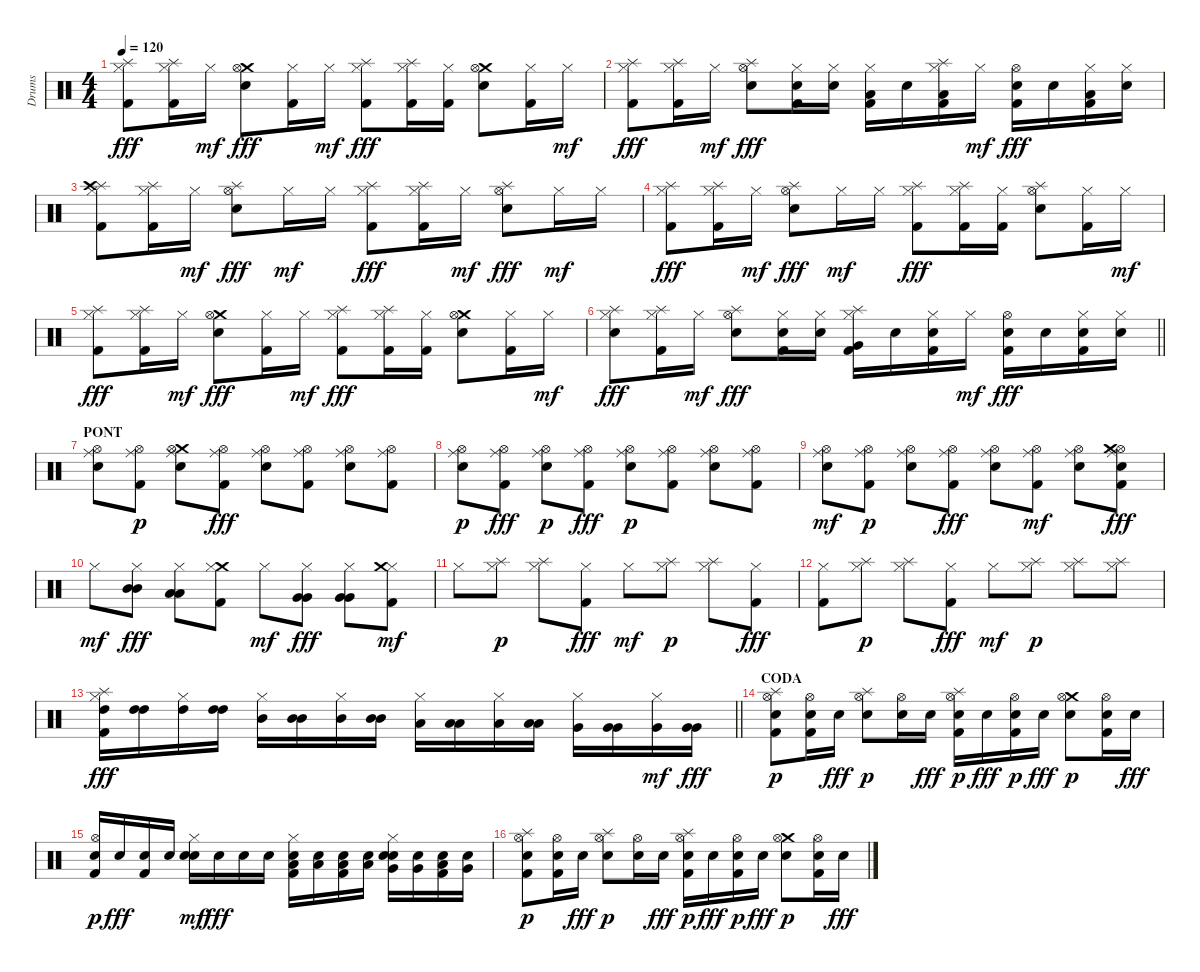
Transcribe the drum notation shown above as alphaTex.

\track ("Drums" "Drums") {instrument percussion}
\staff {score}
\articulation defaults
\ts (4 4)
\tempo 120
\clef neutral
\ks c
("Splash (hit)" "Hi-Hat (closed)" "Kick (hit) 2").8{dy fff} ("Splash (hit)" "Hi-Hat (closed)" "Kick (hit) 2").16 "Hi-Hat (closed)".16{dy mf} ("Crash medium (hit)" "Hi-Hat (open)" "Snare (hit) 2").8{dy fff} ("Hi-Hat (closed)" "Kick (hit) 2").16 "Hi-Hat (closed)".16{dy mf} ("Splash (hit)" "Hi-Hat (closed)" "Kick (hit) 2").8{dy fff} ("Splash (hit)" "Hi-Hat (closed)" "Kick (hit) 2").16 ("Hi-Hat (closed)" "Kick (hit) 2").16 ("Crash medium (hit)" "Hi-Hat (open)" "Snare (hit) 2").8 ("Hi-Hat (closed)" "Kick (hit) 2").16 "Hi-Hat (closed)".16{dy mf} |
("Splash (hit)" "Hi-Hat (closed)" "Kick (hit) 2").8{dy fff} ("Splash (hit)" "Hi-Hat (closed)" "Kick (hit) 2").16 "Hi-Hat (closed)".16{dy mf} ("Splash (hit)" "Hi-Hat (open)" "Snare (hit) 2").8{dy fff} ("Hi-Hat (closed)" "Snare (hit) 2" "Kick (hit) 2").16 ("Hi-Hat (closed)" "Snare (hit) 2").16 ("Hi-Hat (closed)" "Low Tom (hit)" "Kick (hit) 2").16 "Snare (hit) 2".16 ("Splash (hit)" "Hi-Hat (closed)" "Low Tom (hit)" "Kick (hit) 2").16 "Hi-Hat (closed)".16{dy mf} ("Hi-Hat (open)" "Snare (hit) 2" "Kick (hit) 2").16{dy fff} "Snare (hit) 2".16 ("Hi-Hat (closed)" "Low Tom (hit)" "Kick (hit) 2").16 ("Hi-Hat (closed)" "Snare (hit) 2").16 |
("Splash (hit)" "Hi-Hat (closed)" "Crash high (hit)" "Kick (hit) 2").8 ("Splash (hit)" "Hi-Hat (closed)" "Kick (hit) 2").16 "Hi-Hat (closed)".16{dy mf} ("Splash (hit)" "Hi-Hat (open)" "Snare (hit) 2").8{dy fff} "Hi-Hat (closed)".16{dy mf} "Hi-Hat (closed)".16 ("Splash (hit)" "Hi-Hat (closed)" "Kick (hit) 2").8{dy fff} ("Splash (hit)" "Hi-Hat (closed)" "Kick (hit) 2").16 "Hi-Hat (closed)".16{dy mf} ("Splash (hit)" "Hi-Hat (open)" "Snare (hit) 2").8{dy fff} "Hi-Hat (closed)".16{dy mf} "Hi-Hat (closed)".16 |
("Splash (hit)" "Hi-Hat (closed)" "Kick (hit) 2").8{dy fff} ("Splash (hit)" "Hi-Hat (closed)" "Kick (hit) 2").16 "Hi-Hat (closed)".16{dy mf} ("Splash (hit)" "Hi-Hat (open)" "Snare (hit) 2").8{dy fff} "Hi-Hat (closed)".16{dy mf} "Hi-Hat (closed)".16 ("Splash (hit)" "Hi-Hat (closed)" "Kick (hit) 2").8{dy fff} ("Splash (hit)" "Hi-Hat (closed)" "Kick (hit) 2").16 ("Hi-Hat (closed)" "Kick (hit) 2").16 ("Splash (hit)" "Hi-Hat (open)" "Snare (hit) 2").8 ("Hi-Hat (closed)" "Kick (hit) 2").16 "Hi-Hat (closed)".16{dy mf} |
("Splash (hit)" "Hi-Hat (closed)" "Kick (hit) 2").8{dy fff} ("Splash (hit)" "Hi-Hat (closed)" "Kick (hit) 2").16 "Hi-Hat (closed)".16{dy mf} ("Crash medium (hit)" "Hi-Hat (open)" "Snare (hit) 2").8{dy fff} ("Hi-Hat (closed)" "Kick (hit) 2").16 "Hi-Hat (closed)".16{dy mf} ("Splash (hit)" "Hi-Hat (closed)" "Kick (hit) 2").8{dy fff} ("Splash (hit)" "Hi-Hat (closed)" "Kick (hit) 2").16 ("Hi-Hat (closed)" "Kick (hit) 2").16 ("Crash medium (hit)" "Hi-Hat (open)" "Snare (hit) 2").8 ("Hi-Hat (closed)" "Kick (hit) 2").16 "Hi-Hat (closed)".16{dy mf} |
\barLineRight lightlight
("Splash (hit)" "Hi-Hat (closed)" "Snare (hit) 2").8{dy fff} ("Splash (hit)" "Hi-Hat (closed)" "Kick (hit) 2").16 "Hi-Hat (closed)".16{dy mf} ("Splash (hit)" "Hi-Hat (open)" "Snare (hit) 2").8{dy fff} ("Hi-Hat (closed)" "Snare (hit) 2" "Kick (hit) 2").16 ("Hi-Hat (closed)" "Snare (hit) 2").16 ("Splash (hit)" "Very Low Tom (hit)" "Hi-Hat (closed)" "Kick (hit) 2").16 "Snare (hit) 2".16 ("Hi-Hat (closed)" "Snare (hit) 2" "Kick (hit) 2").16 "Hi-Hat (closed)".16{dy mf} ("Hi-Hat (open)" "Snare (hit) 2" "Kick (hit) 2").16{dy fff} "Snare (hit) 2".16 ("Hi-Hat (closed)" "Snare (hit) 2" "Kick (hit) 2").16 ("Hi-Hat (closed)" "Snare (hit) 2").16 |
\section ("" "PONT")
("Ride (middle)" "Hi-Hat (open)" "Snare (hit) 2").8 ("Ride (middle)" "Kick (hit) 2" "Hi-Hat (open)").8{dy p} ("Ride (middle)" "Crash medium (hit)" "Snare (hit) 2" "Hi-Hat (open)").8 ("Ride (middle)" "Hi-Hat (open)" "Kick (hit) 2").8{dy fff} ("Ride (middle)" "Hi-Hat (open)" "Snare (hit) 2").8 ("Ride (middle)" "Hi-Hat (open)" "Kick (hit) 2").8 ("Ride (middle)" "Hi-Hat (open)" "Snare (hit) 2").8 ("Ride (middle)" "Hi-Hat (open)" "Kick (hit) 2").8 |
("Ride (middle)" "Snare (hit) 2" "Hi-Hat (open)").8{dy p} ("Ride (middle)" "Hi-Hat (open)" "Kick (hit) 2").8{dy fff} ("Ride (middle)" "Snare (hit) 2" "Hi-Hat (open)").8{dy p} ("Ride (middle)" "Hi-Hat (open)" "Kick (hit) 2").8{dy fff} ("Ride (middle)" "Snare (hit) 2" "Hi-Hat (open)").8{dy p} ("Ride (middle)" "Kick (hit) 2" "Hi-Hat (open)").8 ("Ride (middle)" "Snare (hit) 2" "Hi-Hat (open)").8 ("Ride (middle)" "Kick (hit) 2" "Hi-Hat (open)").8 |
("Hi-Hat (open)" "Snare (hit) 2" "Ride (middle)").8{dy mf} ("Kick (hit) 2" "Ride (middle)" "Hi-Hat (open)").8{dy p} ("Ride (middle)" "Snare (hit) 2" "Hi-Hat (open)").8 ("Ride (middle)" "Hi-Hat (open)" "Kick (hit) 2").8{dy fff} ("Ride (middle)" "Hi-Hat (open)" "Snare (hit) 2").8 ("Hi-Hat (open)" "Kick (hit) 2" "Ride (middle)").8{dy mf} ("Hi-Hat (open)" "Snare (hit) 2" "Ride (middle)").8 ("Hi-Hat (open)" "Kick (hit) 2" "Ride (middle)" "Crash medium (hit)" "Snare (hit) 2").8{dy fff} |
"Hi-Hat (closed)".8{dy mf} ("Mid Tom (hit)" "Hi-Hat (closed)" "Mid Tom (hit)").8{dy fff} ("Low Tom (hit)" "Hi-Hat (closed)" "Low Tom (hit)").8 ("Crash medium (hit)" "Hi-Hat (closed)" "Kick (hit) 2").8 "Hi-Hat (closed)".8{dy mf} ("Hi-Hat (closed)" "Very Low Tom (hit)" "Very Low Tom (hit)").8{dy fff} ("Hi-Hat (closed)" "Very Low Tom (hit)" "Very Low Tom (hit)").8 ("Kick (hit) 2" "Hi-Hat (closed)" "Crash medium (hit)").8{dy mf} |
"Hi-Hat (closed)".8 ("Hi-Hat (closed)" "Splash (hit)").8{dy p} ("Hi-Hat (closed)" "Splash (hit)").8 ("Hi-Hat (closed)" "Kick (hit) 2").8{dy fff} "Hi-Hat (closed)".8{dy mf} ("Hi-Hat (closed)" "Splash (hit)").8{dy p} ("Hi-Hat (closed)" "Splash (hit)").8 ("Hi-Hat (closed)" "Kick (hit) 2").8{dy fff} |
("Hi-Hat (closed)" "Kick (hit) 2").8 ("Hi-Hat (closed)" "Splash (hit)").8{dy p} ("Hi-Hat (closed)" "Splash (hit)").8 ("Hi-Hat (closed)" "Kick (hit) 2").8{dy fff} "Hi-Hat (closed)".8{dy mf} ("Hi-Hat (closed)" "Splash (hit)").8{dy p} ("Hi-Hat (closed)" "Splash (hit)").8 ("Hi-Hat (closed)" "Splash (hit)").8 |
\barLineRight lightlight
("Splash (hit)" "Kick (hit) 2" "Hi-Hat (closed)" "High Tom (hit)").16{dy fff} ("High Tom (hit)" "High Tom (hit)").16 ("Hi-Hat (closed)" "High Tom (hit)").16 ("High Tom (hit)" "High Tom (hit)").16 ("Hi-Hat (closed)" "Mid Tom (hit)").16 ("Mid Tom (hit)" "Mid Tom (hit)").16 ("Hi-Hat (closed)" "Mid Tom (hit)").16 ("Mid Tom (hit)" "Mid Tom (hit)").16 ("Hi-Hat (closed)" "Low Tom (hit)").16 ("Low Tom (hit)" "Low Tom (hit)").16 ("Hi-Hat (closed)" "Low Tom (hit)").16 ("Low Tom (hit)" "Low Tom (hit)").16 ("Hi-Hat (closed)" "Very Low Tom (hit)").16 ("Very Low Tom (hit)" "Very Low Tom (hit)").16 ("Very Low Tom (hit)" "Hi-Hat (closed)").16{dy mf} ("Very Low Tom (hit)" "Very Low Tom (hit)").16{dy fff} |
\section ("" "CODA")
("Splash (hit)" "Kick (hit) 2" "Snare (hit) 2" "Hi-Hat (open)").8{dy p} ("Kick (hit) 2" "Snare (hit) 2" "Hi-Hat (open)").16 "Snare (hit) 2".16{dy fff} ("Splash (hit)" "Electric Snare (hit)" "Hi-Hat (open)").8{dy p} ("Snare (hit) 2" "Hi-Hat (open)").16 "Snare (hit) 2".16{dy fff} ("Splash (hit)" "Kick (hit) 2" "Snare (hit) 2" "Hi-Hat (open)").16{dy p} "Snare (hit) 2".16{dy fff} ("Kick (hit) 2" "Snare (hit) 2" "Hi-Hat (open)").16{dy p} "Snare (hit) 2".16{dy fff} ("Crash medium (hit)" "Electric Snare (hit)" "Hi-Hat (open)").8{dy p} ("Kick (hit) 2" "Snare (hit) 2" "Hi-Hat (open)").16 "Snare (hit) 2".16{dy fff} |
("Kick (hit) 2" "Snare (hit) 2" "Hi-Hat (open)").16{dy p} "Snare (hit) 2".16{dy fff} ("Kick (hit) 2" "Snare (hit) 2").16 "Snare (hit) 2".16 ("Snare (hit) 2" "Electric Snare (hit)" "Hi-Hat (closed)").16{dy mf} "Snare (hit) 2".16{dy fff} "Snare (hit) 2".16 "Snare (hit) 2".16 ("Kick (hit) 2" "Snare (hit) 2" "Hi-Hat (closed)" "Low Tom (hit)").16 ("Snare (hit) 2" "Low Tom (hit)").16 ("Kick (hit) 2" "Snare (hit) 2" "Low Tom (hit)").16 ("Snare (hit) 2" "Low Tom (hit)").16 ("Snare (hit) 2" "Electric Snare (hit)" "Hi-Hat (closed)" "Very Low Tom (hit)").16 ("Snare (hit) 2" "Very Low Tom (hit)").16 ("Kick (hit) 2" "Snare (hit) 2" "Low Floor Tom (hit)").16 ("Snare (hit) 2" "Very Low Tom (hit)").16 |
("Splash (hit)" "Kick (hit) 2" "Snare (hit) 2" "Hi-Hat (open)").8{dy p} ("Kick (hit) 2" "Snare (hit) 2" "Hi-Hat (open)").16 "Snare (hit) 2".16{dy fff} ("Splash (hit)" "Electric Snare (hit)" "Hi-Hat (open)").8{dy p} ("Snare (hit) 2" "Hi-Hat (open)").16 "Snare (hit) 2".16{dy fff} ("Splash (hit)" "Kick (hit) 2" "Snare (hit) 2" "Hi-Hat (open)").16{dy p} "Snare (hit) 2".16{dy fff} ("Kick (hit) 2" "Snare (hit) 2" "Hi-Hat (open)").16{dy p} "Snare (hit) 2".16{dy fff} ("Crash medium (hit)" "Electric Snare (hit)" "Hi-Hat (open)").8{dy p} ("Kick (hit) 2" "Snare (hit) 2" "Hi-Hat (open)").16 "Snare (hit) 2".16{dy fff}
